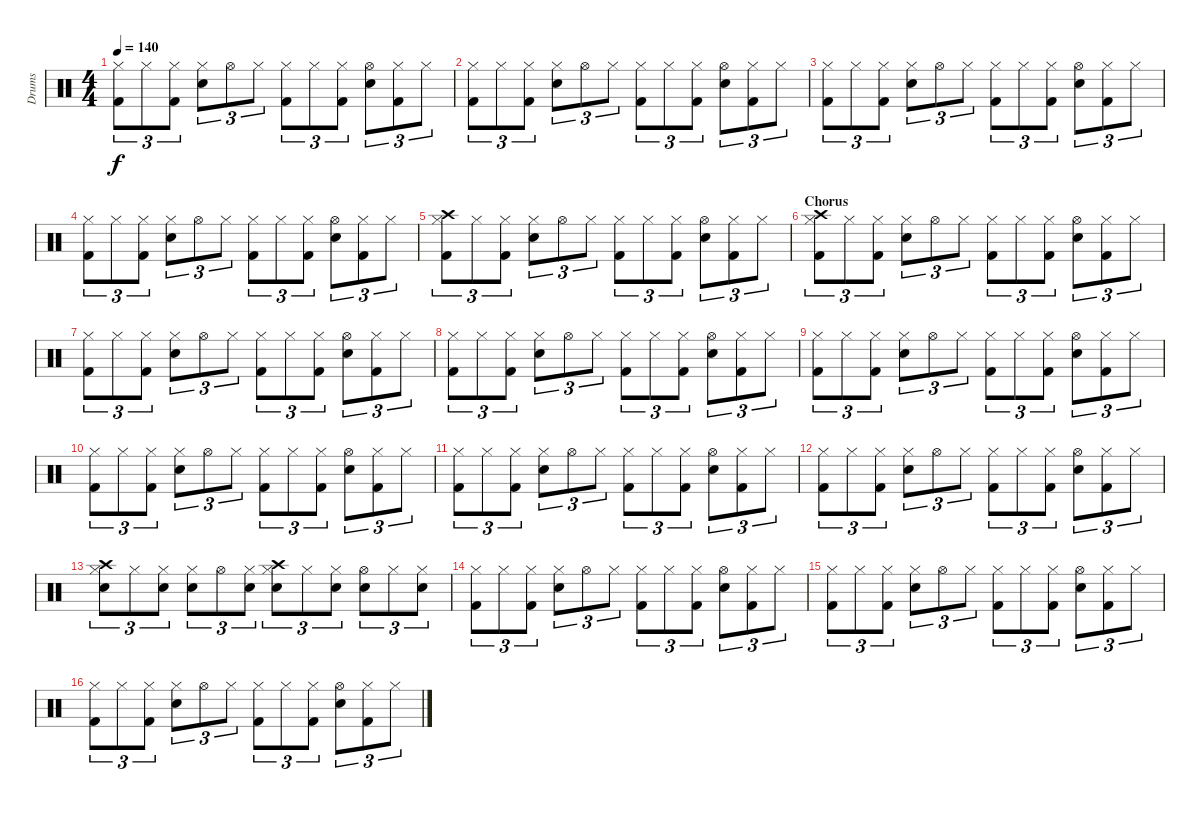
\track ("Drums" "Drums") {instrument percussion}
\staff {score}
\articulation defaults
\ts (4 4)
\tempo 140
\clef neutral
\ks c
("Kick (hit) 2" "Hi-Hat (closed)").8{tu (3 2) dy f} "Hi-Hat (closed)".8{tu (3 2)} ("Kick (hit) 2" "Hi-Hat (closed)").8{tu (3 2)} ("Snare (hit) 2" "Hi-Hat (closed)").8{tu (3 2)} "Hi-Hat (open)".8{tu (3 2)} "Hi-Hat (closed)".8{tu (3 2)} ("Kick (hit) 2" "Hi-Hat (closed)").8{tu (3 2)} "Hi-Hat (closed)".8{tu (3 2)} ("Kick (hit) 2" "Hi-Hat (closed)").8{tu (3 2)} ("Snare (hit) 2" "Hi-Hat (open)").8{tu (3 2)} ("Kick (hit) 2" "Hi-Hat (closed)").8{tu (3 2)} "Hi-Hat (closed)".8{tu (3 2)} |
("Kick (hit) 2" "Hi-Hat (closed)").8{tu (3 2)} "Hi-Hat (closed)".8{tu (3 2)} ("Kick (hit) 2" "Hi-Hat (closed)").8{tu (3 2)} ("Snare (hit) 2" "Hi-Hat (closed)").8{tu (3 2)} "Hi-Hat (open)".8{tu (3 2)} "Hi-Hat (closed)".8{tu (3 2)} ("Kick (hit) 2" "Hi-Hat (closed)").8{tu (3 2)} "Hi-Hat (closed)".8{tu (3 2)} ("Kick (hit) 2" "Hi-Hat (closed)").8{tu (3 2)} ("Snare (hit) 2" "Hi-Hat (open)").8{tu (3 2)} ("Kick (hit) 2" "Hi-Hat (closed)").8{tu (3 2)} "Hi-Hat (closed)".8{tu (3 2)} |
("Kick (hit) 2" "Hi-Hat (closed)").8{tu (3 2)} "Hi-Hat (closed)".8{tu (3 2)} ("Kick (hit) 2" "Hi-Hat (closed)").8{tu (3 2)} ("Snare (hit) 2" "Hi-Hat (closed)").8{tu (3 2)} "Hi-Hat (open)".8{tu (3 2)} "Hi-Hat (closed)".8{tu (3 2)} ("Kick (hit) 2" "Hi-Hat (closed)").8{tu (3 2)} "Hi-Hat (closed)".8{tu (3 2)} ("Kick (hit) 2" "Hi-Hat (closed)").8{tu (3 2)} ("Snare (hit) 2" "Hi-Hat (open)").8{tu (3 2)} ("Kick (hit) 2" "Hi-Hat (closed)").8{tu (3 2)} "Hi-Hat (closed)".8{tu (3 2)} |
("Kick (hit) 2" "Hi-Hat (closed)").8{tu (3 2)} "Hi-Hat (closed)".8{tu (3 2)} ("Kick (hit) 2" "Hi-Hat (closed)").8{tu (3 2)} ("Snare (hit) 2" "Hi-Hat (closed)").8{tu (3 2)} "Hi-Hat (open)".8{tu (3 2)} "Hi-Hat (closed)".8{tu (3 2)} ("Kick (hit) 2" "Hi-Hat (closed)").8{tu (3 2)} "Hi-Hat (closed)".8{tu (3 2)} ("Kick (hit) 2" "Hi-Hat (closed)").8{tu (3 2)} ("Snare (hit) 2" "Hi-Hat (open)").8{tu (3 2)} ("Kick (hit) 2" "Hi-Hat (closed)").8{tu (3 2)} "Hi-Hat (closed)".8{tu (3 2)} |
("Kick (hit) 2" "Hi-Hat (closed)" "Crash high (hit)").8{tu (3 2)} "Hi-Hat (closed)".8{tu (3 2)} ("Kick (hit) 2" "Hi-Hat (closed)").8{tu (3 2)} ("Snare (hit) 2" "Hi-Hat (closed)").8{tu (3 2)} "Hi-Hat (open)".8{tu (3 2)} "Hi-Hat (closed)".8{tu (3 2)} ("Kick (hit) 2" "Hi-Hat (closed)").8{tu (3 2)} "Hi-Hat (closed)".8{tu (3 2)} ("Kick (hit) 2" "Hi-Hat (closed)").8{tu (3 2)} ("Snare (hit) 2" "Hi-Hat (open)").8{tu (3 2)} ("Kick (hit) 2" "Hi-Hat (closed)").8{tu (3 2)} "Hi-Hat (closed)".8{tu (3 2)} |
\section ("" "Chorus")
("Kick (hit) 2" "Hi-Hat (closed)" "Crash high (hit)").8{tu (3 2)} "Hi-Hat (closed)".8{tu (3 2)} ("Kick (hit) 2" "Hi-Hat (closed)").8{tu (3 2)} ("Snare (hit) 2" "Hi-Hat (closed)").8{tu (3 2)} "Hi-Hat (open)".8{tu (3 2)} "Hi-Hat (closed)".8{tu (3 2)} ("Kick (hit) 2" "Hi-Hat (closed)").8{tu (3 2)} "Hi-Hat (closed)".8{tu (3 2)} ("Kick (hit) 2" "Hi-Hat (closed)").8{tu (3 2)} ("Snare (hit) 2" "Hi-Hat (open)").8{tu (3 2)} ("Kick (hit) 2" "Hi-Hat (closed)").8{tu (3 2)} "Hi-Hat (closed)".8{tu (3 2)} |
("Kick (hit) 2" "Hi-Hat (closed)").8{tu (3 2)} "Hi-Hat (closed)".8{tu (3 2)} ("Kick (hit) 2" "Hi-Hat (closed)").8{tu (3 2)} ("Snare (hit) 2" "Hi-Hat (closed)").8{tu (3 2)} "Hi-Hat (open)".8{tu (3 2)} "Hi-Hat (closed)".8{tu (3 2)} ("Kick (hit) 2" "Hi-Hat (closed)").8{tu (3 2)} "Hi-Hat (closed)".8{tu (3 2)} ("Kick (hit) 2" "Hi-Hat (closed)").8{tu (3 2)} ("Snare (hit) 2" "Hi-Hat (open)").8{tu (3 2)} ("Kick (hit) 2" "Hi-Hat (closed)").8{tu (3 2)} "Hi-Hat (closed)".8{tu (3 2)} |
("Kick (hit) 2" "Hi-Hat (closed)").8{tu (3 2)} "Hi-Hat (closed)".8{tu (3 2)} ("Kick (hit) 2" "Hi-Hat (closed)").8{tu (3 2)} ("Snare (hit) 2" "Hi-Hat (closed)").8{tu (3 2)} "Hi-Hat (open)".8{tu (3 2)} "Hi-Hat (closed)".8{tu (3 2)} ("Kick (hit) 2" "Hi-Hat (closed)").8{tu (3 2)} "Hi-Hat (closed)".8{tu (3 2)} ("Kick (hit) 2" "Hi-Hat (closed)").8{tu (3 2)} ("Snare (hit) 2" "Hi-Hat (open)").8{tu (3 2)} ("Kick (hit) 2" "Hi-Hat (closed)").8{tu (3 2)} "Hi-Hat (closed)".8{tu (3 2)} |
("Kick (hit) 2" "Hi-Hat (closed)").8{tu (3 2)} "Hi-Hat (closed)".8{tu (3 2)} ("Kick (hit) 2" "Hi-Hat (closed)").8{tu (3 2)} ("Snare (hit) 2" "Hi-Hat (closed)").8{tu (3 2)} "Hi-Hat (open)".8{tu (3 2)} "Hi-Hat (closed)".8{tu (3 2)} ("Kick (hit) 2" "Hi-Hat (closed)").8{tu (3 2)} "Hi-Hat (closed)".8{tu (3 2)} ("Kick (hit) 2" "Hi-Hat (closed)").8{tu (3 2)} ("Snare (hit) 2" "Hi-Hat (open)").8{tu (3 2)} ("Kick (hit) 2" "Hi-Hat (closed)").8{tu (3 2)} "Hi-Hat (closed)".8{tu (3 2)} |
("Kick (hit) 2" "Hi-Hat (closed)").8{tu (3 2)} "Hi-Hat (closed)".8{tu (3 2)} ("Kick (hit) 2" "Hi-Hat (closed)").8{tu (3 2)} ("Snare (hit) 2" "Hi-Hat (closed)").8{tu (3 2)} "Hi-Hat (open)".8{tu (3 2)} "Hi-Hat (closed)".8{tu (3 2)} ("Kick (hit) 2" "Hi-Hat (closed)").8{tu (3 2)} "Hi-Hat (closed)".8{tu (3 2)} ("Kick (hit) 2" "Hi-Hat (closed)").8{tu (3 2)} ("Snare (hit) 2" "Hi-Hat (open)").8{tu (3 2)} ("Kick (hit) 2" "Hi-Hat (closed)").8{tu (3 2)} "Hi-Hat (closed)".8{tu (3 2)} |
("Kick (hit) 2" "Hi-Hat (closed)").8{tu (3 2)} "Hi-Hat (closed)".8{tu (3 2)} ("Kick (hit) 2" "Hi-Hat (closed)").8{tu (3 2)} ("Snare (hit) 2" "Hi-Hat (closed)").8{tu (3 2)} "Hi-Hat (open)".8{tu (3 2)} "Hi-Hat (closed)".8{tu (3 2)} ("Kick (hit) 2" "Hi-Hat (closed)").8{tu (3 2)} "Hi-Hat (closed)".8{tu (3 2)} ("Kick (hit) 2" "Hi-Hat (closed)").8{tu (3 2)} ("Snare (hit) 2" "Hi-Hat (open)").8{tu (3 2)} ("Kick (hit) 2" "Hi-Hat (closed)").8{tu (3 2)} "Hi-Hat (closed)".8{tu (3 2)} |
("Kick (hit) 2" "Hi-Hat (closed)").8{tu (3 2)} "Hi-Hat (closed)".8{tu (3 2)} ("Kick (hit) 2" "Hi-Hat (closed)").8{tu (3 2)} ("Snare (hit) 2" "Hi-Hat (closed)").8{tu (3 2)} "Hi-Hat (open)".8{tu (3 2)} "Hi-Hat (closed)".8{tu (3 2)} ("Kick (hit) 2" "Hi-Hat (closed)").8{tu (3 2)} "Hi-Hat (closed)".8{tu (3 2)} ("Kick (hit) 2" "Hi-Hat (closed)").8{tu (3 2)} ("Snare (hit) 2" "Hi-Hat (open)").8{tu (3 2)} ("Kick (hit) 2" "Hi-Hat (closed)").8{tu (3 2)} "Hi-Hat (closed)".8{tu (3 2)} |
("Snare (hit) 2" "Hi-Hat (closed)" "Crash high (hit)").8{tu (3 2)} "Hi-Hat (closed)".8{tu (3 2)} ("Snare (hit) 2" "Hi-Hat (closed)").8{tu (3 2)} ("Snare (hit) 2" "Hi-Hat (closed)").8{tu (3 2)} "Hi-Hat (open)".8{tu (3 2)} ("Snare (hit) 2" "Hi-Hat (closed)").8{tu (3 2)} ("Snare (hit) 2" "Hi-Hat (closed)" "Crash high (hit)").8{tu (3 2)} "Hi-Hat (closed)".8{tu (3 2)} ("Snare (hit) 2" "Hi-Hat (closed)").8{tu (3 2)} ("Snare (hit) 2" "Hi-Hat (open)").8{tu (3 2)} "Hi-Hat (closed)".8{tu (3 2)} ("Snare (hit) 2" "Hi-Hat (closed)").8{tu (3 2)} |
("Kick (hit) 2" "Hi-Hat (closed)").8{tu (3 2)} "Hi-Hat (closed)".8{tu (3 2)} ("Kick (hit) 2" "Hi-Hat (closed)").8{tu (3 2)} ("Snare (hit) 2" "Hi-Hat (closed)").8{tu (3 2)} "Hi-Hat (open)".8{tu (3 2)} "Hi-Hat (closed)".8{tu (3 2)} ("Kick (hit) 2" "Hi-Hat (closed)").8{tu (3 2)} "Hi-Hat (closed)".8{tu (3 2)} ("Kick (hit) 2" "Hi-Hat (closed)").8{tu (3 2)} ("Snare (hit) 2" "Hi-Hat (open)").8{tu (3 2)} ("Kick (hit) 2" "Hi-Hat (closed)").8{tu (3 2)} "Hi-Hat (closed)".8{tu (3 2)} |
("Kick (hit) 2" "Hi-Hat (closed)").8{tu (3 2)} "Hi-Hat (closed)".8{tu (3 2)} ("Kick (hit) 2" "Hi-Hat (closed)").8{tu (3 2)} ("Snare (hit) 2" "Hi-Hat (closed)").8{tu (3 2)} "Hi-Hat (open)".8{tu (3 2)} "Hi-Hat (closed)".8{tu (3 2)} ("Kick (hit) 2" "Hi-Hat (closed)").8{tu (3 2)} "Hi-Hat (closed)".8{tu (3 2)} ("Kick (hit) 2" "Hi-Hat (closed)").8{tu (3 2)} ("Snare (hit) 2" "Hi-Hat (open)").8{tu (3 2)} ("Kick (hit) 2" "Hi-Hat (closed)").8{tu (3 2)} "Hi-Hat (closed)".8{tu (3 2)} |
("Kick (hit) 2" "Hi-Hat (closed)").8{tu (3 2)} "Hi-Hat (closed)".8{tu (3 2)} ("Kick (hit) 2" "Hi-Hat (closed)").8{tu (3 2)} ("Snare (hit) 2" "Hi-Hat (closed)").8{tu (3 2)} "Hi-Hat (open)".8{tu (3 2)} "Hi-Hat (closed)".8{tu (3 2)} ("Kick (hit) 2" "Hi-Hat (closed)").8{tu (3 2)} "Hi-Hat (closed)".8{tu (3 2)} ("Kick (hit) 2" "Hi-Hat (closed)").8{tu (3 2)} ("Snare (hit) 2" "Hi-Hat (open)").8{tu (3 2)} ("Kick (hit) 2" "Hi-Hat (closed)").8{tu (3 2)} "Hi-Hat (closed)".8{tu (3 2)}
